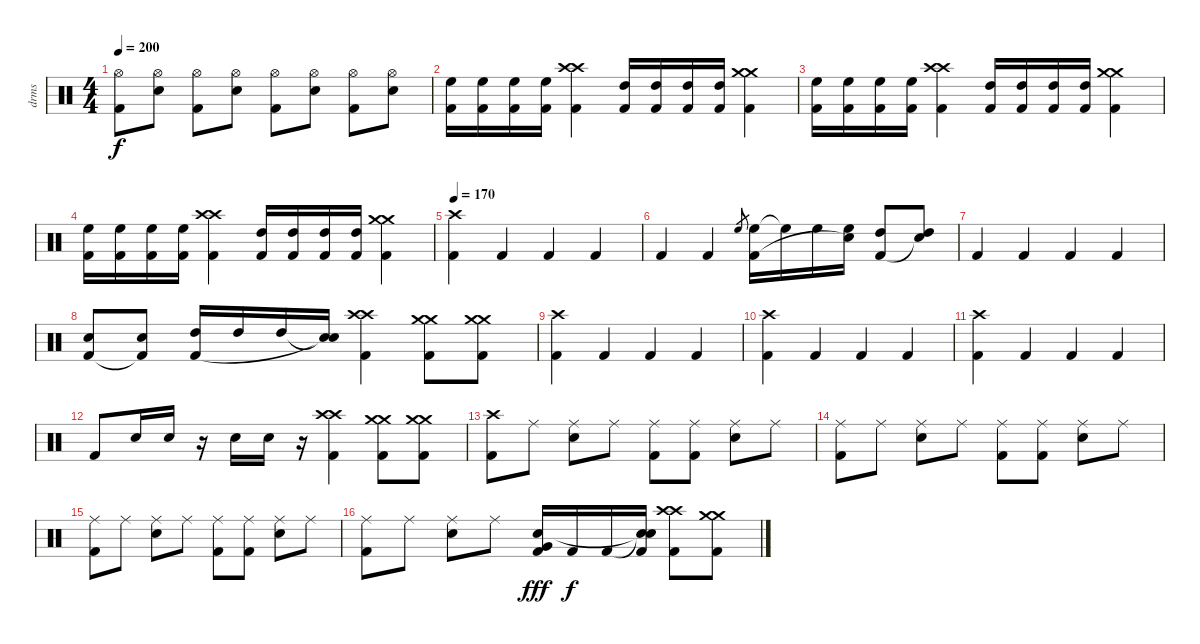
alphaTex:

\track ("drms" "drms") {instrument percussion}
\staff {score}
\articulation defaults
\ts (4 4)
\tempo 200
\clef neutral
\ks c
("Hi-Hat (open)" "Kick (hit) 2").8{dy f} ("Hi-Hat (open)" "Snare (hit) 2").8 ("Hi-Hat (open)" "Kick (hit) 2").8 ("Hi-Hat (open)" "Snare (hit) 2").8 ("Hi-Hat (open)" "Kick (hit) 2").8 ("Hi-Hat (open)" "Snare (hit) 2").8 ("Hi-Hat (open)" "Kick (hit) 2").8 ("Hi-Hat (open)" "Snare (hit) 2").8 |
("High Floor Tom (hit)" "Kick (hit) 2").16 ("High Floor Tom (hit)" "Kick (hit) 2").16 ("High Floor Tom (hit)" "Kick (hit) 2").16 ("High Floor Tom (hit)" "Kick (hit) 2").16 ("Crash high (hit)" "Crash high (hit)" "Kick (hit) 2").4 ("High Tom (hit)" "Kick (hit) 2").16 ("High Tom (hit)" "Kick (hit) 2").16 ("High Tom (hit)" "Kick (hit) 2").16 ("High Tom (hit)" "Kick (hit) 2").16 ("Crash medium (hit)" "Crash medium (hit)" "Kick (hit) 2").4 |
("High Floor Tom (hit)" "Kick (hit) 2").16 ("High Floor Tom (hit)" "Kick (hit) 2").16 ("High Floor Tom (hit)" "Kick (hit) 2").16 ("High Floor Tom (hit)" "Kick (hit) 2").16 ("Crash high (hit)" "Crash high (hit)" "Kick (hit) 2").4 ("High Tom (hit)" "Kick (hit) 2").16 ("High Tom (hit)" "Kick (hit) 2").16 ("High Tom (hit)" "Kick (hit) 2").16 ("High Tom (hit)" "Kick (hit) 2").16 ("Crash medium (hit)" "Crash medium (hit)" "Kick (hit) 2").4 |
("High Floor Tom (hit)" "Kick (hit) 2").16 ("High Floor Tom (hit)" "Kick (hit) 2").16 ("High Floor Tom (hit)" "Kick (hit) 2").16 ("High Floor Tom (hit)" "Kick (hit) 2").16 ("Crash high (hit)" "Crash high (hit)" "Kick (hit) 2").4 ("High Tom (hit)" "Kick (hit) 2").16 ("High Tom (hit)" "Kick (hit) 2").16 ("High Tom (hit)" "Kick (hit) 2").16 ("High Tom (hit)" "Kick (hit) 2").16 ("Crash medium (hit)" "Crash medium (hit)" "Kick (hit) 2").4 |
\tempo 170
("Crash high (hit)" "Kick (hit) 2").4 "Kick (hit) 2".4 "Kick (hit) 2".4 "Kick (hit) 2".4 |
"Kick (hit) 2".4 "Kick (hit) 2".4 "High Floor Tom (hit)".8{gr} ("High Floor Tom (hit)" "Kick (hit) 2").16 "High Floor Tom (hit)"{t}.16 "High Floor Tom (hit)".16 ("High Floor Tom (hit)" "Snare (hit)"{t}).16 ("High Tom (hit)" "Kick (hit) 2").8 ("High Tom (hit)" "Snare (hit)"{t}).8 |
"Kick (hit) 2".4 "Kick (hit) 2".4 "Kick (hit) 2".4 "Kick (hit) 2".4 |
("Snare (hit) 2" "Kick (hit) 2").8 ("Snare (hit) 2" "Kick (hit) 2"{t}).8 ("High Tom (hit)" "Kick (hit) 2").16 "High Tom (hit)".16 "High Tom (hit)".16 ("Snare (hit)"{t} "Snare (hit)"{t}).16 ("Crash high (hit)" "Crash high (hit)" "Kick (hit) 2").4 ("Crash medium (hit)" "Crash medium (hit)" "Kick (hit) 2").8 ("Crash medium (hit)" "Crash medium (hit)" "Kick (hit) 2").8 |
("Crash high (hit)" "Kick (hit) 2").4 "Kick (hit) 2".4 "Kick (hit) 2".4 "Kick (hit) 2".4 |
("Crash high (hit)" "Kick (hit) 2").4 "Kick (hit) 2".4 "Kick (hit) 2".4 "Kick (hit) 2".4 |
("Crash high (hit)" "Kick (hit) 2").4 "Kick (hit) 2".4 "Kick (hit) 2".4 "Kick (hit) 2".4 |
"Kick (hit) 2".8 "Snare (hit) 2".16 "Snare (hit) 2".16 r.16 "Snare (hit) 2".16 "Snare (hit) 2".16 r.16 ("Crash high (hit)" "Crash high (hit)" "Kick (hit) 2").4 ("Crash medium (hit)" "Crash medium (hit)" "Kick (hit) 2").8 ("Crash medium (hit)" "Crash medium (hit)" "Kick (hit) 2").8 |
("Crash high (hit)" "Kick (hit) 2").8 "Ride (middle)".8 ("Ride (middle)" "Snare (hit) 2").8 "Ride (middle)".8 ("Ride (middle)" "Kick (hit) 2").8 ("Ride (middle)" "Kick (hit) 2").8 ("Ride (middle)" "Snare (hit) 2").8 "Ride (middle)".8 |
("Ride (middle)" "Kick (hit) 2").8 "Ride (middle)".8 ("Ride (middle)" "Snare (hit) 2").8 "Ride (middle)".8 ("Ride (middle)" "Kick (hit) 2").8 ("Ride (middle)" "Kick (hit) 2").8 ("Ride (middle)" "Snare (hit) 2").8 "Ride (middle)".8 |
("Ride (middle)" "Kick (hit) 2").8 "Ride (middle)".8 ("Ride (middle)" "Snare (hit) 2").8 "Ride (middle)".8 ("Ride (middle)" "Kick (hit) 2").8 ("Ride (middle)" "Kick (hit) 2").8 ("Ride (middle)" "Snare (hit) 2").8 "Ride (middle)".8 |
("Ride (middle)" "Kick (hit) 2").8 "Ride (middle)".8 ("Ride (middle)" "Snare (hit) 2").8 "Ride (middle)".8 ("Very Low Tom (hit)" "Snare (hit) 2" "Kick (hit) 2").16{dy fff} "Kick (hit) 2".16{dy f} "Kick (hit) 2".16 ("Snare (hit)"{t} "Snare (hit)"{t} "Kick (hit) 2").16 ("Crash high (hit)" "Crash high (hit)" "Kick (hit) 2").8 ("Crash medium (hit)" "Crash medium (hit)" "Kick (hit) 2").8
